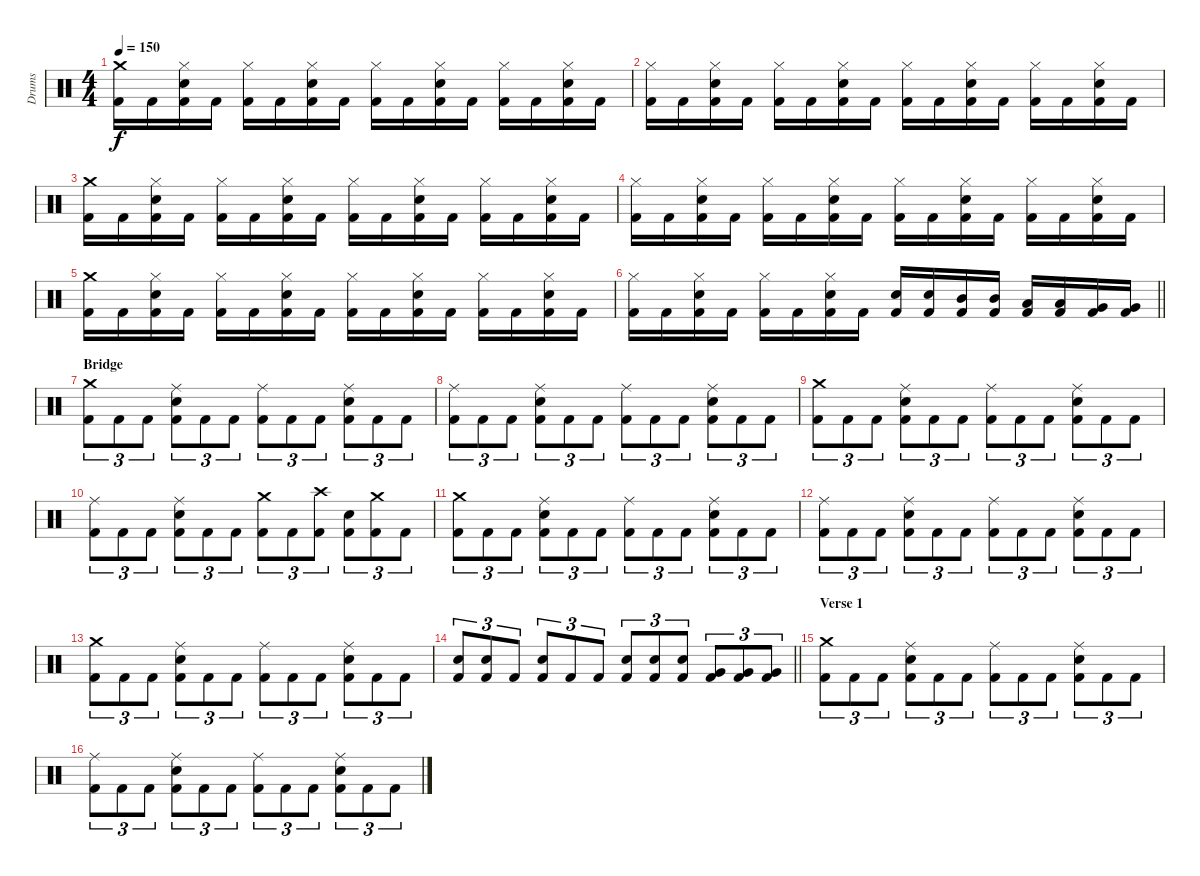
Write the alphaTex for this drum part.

\track ("Drums" "Drums") {instrument percussion}
\staff {score}
\articulation defaults
\ts (4 4)
\tempo 150
\clef neutral
\ks c
("Kick (hit) 2" "Crash medium (hit)").16{dy f} "Kick (hit) 2".16 ("Kick (hit) 2" "Snare (hit) 2" "Hi-Hat (closed)").16 "Kick (hit) 2".16 ("Kick (hit) 2" "Hi-Hat (closed)").16 "Kick (hit) 2".16 ("Kick (hit) 2" "Snare (hit) 2" "Hi-Hat (closed)").16 "Kick (hit) 2".16 ("Kick (hit) 2" "Hi-Hat (closed)").16 "Kick (hit) 2".16 ("Kick (hit) 2" "Snare (hit) 2" "Hi-Hat (closed)").16 "Kick (hit) 2".16 ("Kick (hit) 2" "Hi-Hat (closed)").16 "Kick (hit) 2".16 ("Kick (hit) 2" "Snare (hit) 2" "Hi-Hat (closed)").16 "Kick (hit) 2".16 |
("Kick (hit) 2" "Hi-Hat (closed)").16 "Kick (hit) 2".16 ("Kick (hit) 2" "Snare (hit) 2" "Hi-Hat (closed)").16 "Kick (hit) 2".16 ("Kick (hit) 2" "Hi-Hat (closed)").16 "Kick (hit) 2".16 ("Kick (hit) 2" "Snare (hit) 2" "Hi-Hat (closed)").16 "Kick (hit) 2".16 ("Kick (hit) 2" "Hi-Hat (closed)").16 "Kick (hit) 2".16 ("Kick (hit) 2" "Snare (hit) 2" "Hi-Hat (closed)").16 "Kick (hit) 2".16 ("Kick (hit) 2" "Hi-Hat (closed)").16 "Kick (hit) 2".16 ("Kick (hit) 2" "Snare (hit) 2" "Hi-Hat (closed)").16 "Kick (hit) 2".16 |
("Kick (hit) 2" "Crash medium (hit)").16 "Kick (hit) 2".16 ("Kick (hit) 2" "Snare (hit) 2" "Hi-Hat (closed)").16 "Kick (hit) 2".16 ("Kick (hit) 2" "Hi-Hat (closed)").16 "Kick (hit) 2".16 ("Kick (hit) 2" "Snare (hit) 2" "Hi-Hat (closed)").16 "Kick (hit) 2".16 ("Kick (hit) 2" "Hi-Hat (closed)").16 "Kick (hit) 2".16 ("Kick (hit) 2" "Snare (hit) 2" "Hi-Hat (closed)").16 "Kick (hit) 2".16 ("Kick (hit) 2" "Hi-Hat (closed)").16 "Kick (hit) 2".16 ("Kick (hit) 2" "Snare (hit) 2" "Hi-Hat (closed)").16 "Kick (hit) 2".16 |
("Kick (hit) 2" "Hi-Hat (closed)").16 "Kick (hit) 2".16 ("Kick (hit) 2" "Snare (hit) 2" "Hi-Hat (closed)").16 "Kick (hit) 2".16 ("Kick (hit) 2" "Hi-Hat (closed)").16 "Kick (hit) 2".16 ("Kick (hit) 2" "Snare (hit) 2" "Hi-Hat (closed)").16 "Kick (hit) 2".16 ("Kick (hit) 2" "Hi-Hat (closed)").16 "Kick (hit) 2".16 ("Kick (hit) 2" "Snare (hit) 2" "Hi-Hat (closed)").16 "Kick (hit) 2".16 ("Kick (hit) 2" "Hi-Hat (closed)").16 "Kick (hit) 2".16 ("Kick (hit) 2" "Snare (hit) 2" "Hi-Hat (closed)").16 "Kick (hit) 2".16 |
("Kick (hit) 2" "Crash medium (hit)").16 "Kick (hit) 2".16 ("Kick (hit) 2" "Snare (hit) 2" "Hi-Hat (closed)").16 "Kick (hit) 2".16 ("Kick (hit) 2" "Hi-Hat (closed)").16 "Kick (hit) 2".16 ("Kick (hit) 2" "Snare (hit) 2" "Hi-Hat (closed)").16 "Kick (hit) 2".16 ("Kick (hit) 2" "Hi-Hat (closed)").16 "Kick (hit) 2".16 ("Kick (hit) 2" "Snare (hit) 2" "Hi-Hat (closed)").16 "Kick (hit) 2".16 ("Kick (hit) 2" "Hi-Hat (closed)").16 "Kick (hit) 2".16 ("Kick (hit) 2" "Snare (hit) 2" "Hi-Hat (closed)").16 "Kick (hit) 2".16 |
\barLineRight lightlight
("Kick (hit) 2" "Hi-Hat (closed)").16 "Kick (hit) 2".16 ("Kick (hit) 2" "Snare (hit) 2" "Hi-Hat (closed)").16 "Kick (hit) 2".16 ("Kick (hit) 2" "Hi-Hat (closed)").16 "Kick (hit) 2".16 ("Kick (hit) 2" "Snare (hit) 2" "Hi-Hat (closed)").16 "Kick (hit) 2".16 ("Kick (hit) 2" "Snare (hit) 2").16 ("Kick (hit) 2" "Snare (hit) 2").16 ("Kick (hit) 2" "Mid Tom (hit)").16 ("Kick (hit) 2" "Mid Tom (hit)").16 ("Kick (hit) 2" "Low Tom (hit)").16 ("Kick (hit) 2" "Low Tom (hit)").16 ("Kick (hit) 2" "Very Low Tom (hit)").16 ("Kick (hit) 2" "Very Low Tom (hit)").16 |
\section ("" "Bridge")
("Kick (hit) 2" "Crash medium (hit)").8{tu (3 2)} "Kick (hit) 2".8{tu (3 2)} "Kick (hit) 2".8{tu (3 2)} ("Kick (hit) 2" "Snare (hit) 2" "Ride (middle)").8{tu (3 2)} "Kick (hit) 2".8{tu (3 2)} "Kick (hit) 2".8{tu (3 2)} ("Kick (hit) 2" "Ride (middle)").8{tu (3 2)} "Kick (hit) 2".8{tu (3 2)} "Kick (hit) 2".8{tu (3 2)} ("Kick (hit) 2" "Snare (hit) 2" "Ride (middle)").8{tu (3 2)} "Kick (hit) 2".8{tu (3 2)} "Kick (hit) 2".8{tu (3 2)} |
("Kick (hit) 2" "Ride (middle)").8{tu (3 2)} "Kick (hit) 2".8{tu (3 2)} "Kick (hit) 2".8{tu (3 2)} ("Kick (hit) 2" "Snare (hit) 2" "Ride (middle)").8{tu (3 2)} "Kick (hit) 2".8{tu (3 2)} "Kick (hit) 2".8{tu (3 2)} ("Kick (hit) 2" "Ride (middle)").8{tu (3 2)} "Kick (hit) 2".8{tu (3 2)} "Kick (hit) 2".8{tu (3 2)} ("Kick (hit) 2" "Snare (hit) 2" "Ride (middle)").8{tu (3 2)} "Kick (hit) 2".8{tu (3 2)} "Kick (hit) 2".8{tu (3 2)} |
("Kick (hit) 2" "Crash medium (hit)").8{tu (3 2)} "Kick (hit) 2".8{tu (3 2)} "Kick (hit) 2".8{tu (3 2)} ("Kick (hit) 2" "Snare (hit) 2" "Ride (middle)").8{tu (3 2)} "Kick (hit) 2".8{tu (3 2)} "Kick (hit) 2".8{tu (3 2)} ("Kick (hit) 2" "Ride (middle)").8{tu (3 2)} "Kick (hit) 2".8{tu (3 2)} "Kick (hit) 2".8{tu (3 2)} ("Kick (hit) 2" "Snare (hit) 2" "Ride (middle)").8{tu (3 2)} "Kick (hit) 2".8{tu (3 2)} "Kick (hit) 2".8{tu (3 2)} |
("Kick (hit) 2" "Ride (middle)").8{tu (3 2)} "Kick (hit) 2".8{tu (3 2)} "Kick (hit) 2".8{tu (3 2)} ("Kick (hit) 2" "Snare (hit) 2" "Ride (middle)").8{tu (3 2)} "Kick (hit) 2".8{tu (3 2)} "Kick (hit) 2".8{tu (3 2)} ("Kick (hit) 2" "Crash medium (hit)").8{tu (3 2)} "Kick (hit) 2".8{tu (3 2)} ("Kick (hit) 2" "Crash high (hit)").8{tu (3 2)} ("Kick (hit) 2" "Snare (hit) 2").8{tu (3 2)} ("Kick (hit) 2" "Crash medium (hit)").8{tu (3 2)} "Kick (hit) 2".8{tu (3 2)} |
("Kick (hit) 2" "Crash medium (hit)").8{tu (3 2)} "Kick (hit) 2".8{tu (3 2)} "Kick (hit) 2".8{tu (3 2)} ("Kick (hit) 2" "Snare (hit) 2" "Ride (middle)").8{tu (3 2)} "Kick (hit) 2".8{tu (3 2)} "Kick (hit) 2".8{tu (3 2)} ("Kick (hit) 2" "Ride (middle)").8{tu (3 2)} "Kick (hit) 2".8{tu (3 2)} "Kick (hit) 2".8{tu (3 2)} ("Kick (hit) 2" "Snare (hit) 2" "Ride (middle)").8{tu (3 2)} "Kick (hit) 2".8{tu (3 2)} "Kick (hit) 2".8{tu (3 2)} |
("Kick (hit) 2" "Ride (middle)").8{tu (3 2)} "Kick (hit) 2".8{tu (3 2)} "Kick (hit) 2".8{tu (3 2)} ("Kick (hit) 2" "Snare (hit) 2" "Ride (middle)").8{tu (3 2)} "Kick (hit) 2".8{tu (3 2)} "Kick (hit) 2".8{tu (3 2)} ("Kick (hit) 2" "Ride (middle)").8{tu (3 2)} "Kick (hit) 2".8{tu (3 2)} "Kick (hit) 2".8{tu (3 2)} ("Kick (hit) 2" "Snare (hit) 2" "Ride (middle)").8{tu (3 2)} "Kick (hit) 2".8{tu (3 2)} "Kick (hit) 2".8{tu (3 2)} |
("Kick (hit) 2" "Crash medium (hit)").8{tu (3 2)} "Kick (hit) 2".8{tu (3 2)} "Kick (hit) 2".8{tu (3 2)} ("Kick (hit) 2" "Snare (hit) 2" "Ride (middle)").8{tu (3 2)} "Kick (hit) 2".8{tu (3 2)} "Kick (hit) 2".8{tu (3 2)} ("Kick (hit) 2" "Ride (middle)").8{tu (3 2)} "Kick (hit) 2".8{tu (3 2)} "Kick (hit) 2".8{tu (3 2)} ("Kick (hit) 2" "Snare (hit) 2" "Ride (middle)").8{tu (3 2)} "Kick (hit) 2".8{tu (3 2)} "Kick (hit) 2".8{tu (3 2)} |
\barLineRight lightlight
("Kick (hit) 2" "Snare (hit) 2").8{tu (3 2)} ("Kick (hit) 2" "Snare (hit) 2").8{tu (3 2)} "Kick (hit) 2".8{tu (3 2)} ("Kick (hit) 2" "Snare (hit) 2").8{tu (3 2)} "Kick (hit) 2".8{tu (3 2)} "Kick (hit) 2".8{tu (3 2)} ("Kick (hit) 2" "Snare (hit) 2").8{tu (3 2)} ("Kick (hit) 2" "Snare (hit) 2").8{tu (3 2)} ("Kick (hit) 2" "Snare (hit) 2").8{tu (3 2)} ("Kick (hit) 2" "Very Low Tom (hit)").8{tu (3 2)} ("Kick (hit) 2" "Very Low Tom (hit)").8{tu (3 2)} ("Kick (hit) 2" "Very Low Tom (hit)").8{tu (3 2)} |
\section ("" "Verse 1")
("Kick (hit) 2" "Crash medium (hit)").8{tu (3 2)} "Kick (hit) 2".8{tu (3 2)} "Kick (hit) 2".8{tu (3 2)} ("Kick (hit) 2" "Snare (hit) 2" "Ride (middle)").8{tu (3 2)} "Kick (hit) 2".8{tu (3 2)} "Kick (hit) 2".8{tu (3 2)} ("Kick (hit) 2" "Ride (middle)").8{tu (3 2)} "Kick (hit) 2".8{tu (3 2)} "Kick (hit) 2".8{tu (3 2)} ("Kick (hit) 2" "Snare (hit) 2" "Ride (middle)").8{tu (3 2)} "Kick (hit) 2".8{tu (3 2)} "Kick (hit) 2".8{tu (3 2)} |
("Kick (hit) 2" "Ride (middle)").8{tu (3 2)} "Kick (hit) 2".8{tu (3 2)} "Kick (hit) 2".8{tu (3 2)} ("Kick (hit) 2" "Snare (hit) 2" "Ride (middle)").8{tu (3 2)} "Kick (hit) 2".8{tu (3 2)} "Kick (hit) 2".8{tu (3 2)} ("Kick (hit) 2" "Ride (middle)").8{tu (3 2)} "Kick (hit) 2".8{tu (3 2)} "Kick (hit) 2".8{tu (3 2)} ("Kick (hit) 2" "Snare (hit) 2" "Ride (middle)").8{tu (3 2)} "Kick (hit) 2".8{tu (3 2)} "Kick (hit) 2".8{tu (3 2)}
